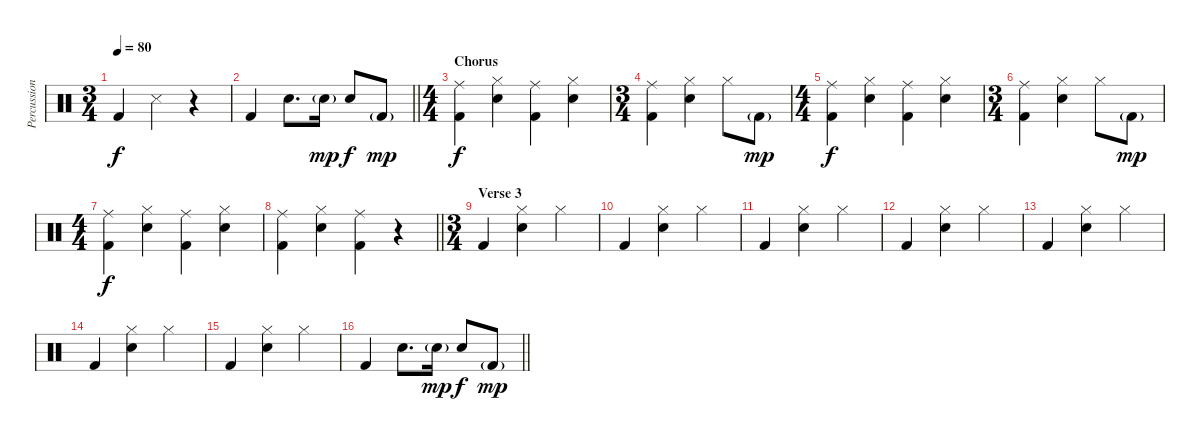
\track ("Percussion" "Percussion") {instrument percussion}
\staff {score}
\articulation defaults
\ts (3 4)
\tempo 80
\clef neutral
\ks c "Kick (hit) 2".4{dy f} "Snare (side stick) 3".4
r.4 |
\barLineRight lightlight "Kick (hit) 2".4 "Snare (hit) 2".8{d} "Snare (hit) 2"{g}.16{dy mp} "Snare (hit) 2".8{dy f} "Kick (hit) 2"{g}.8{dy mp}
|
\ts (4 4)
\section ("" "Chorus")
("Ride (middle)" "Kick (hit) 2").4{dy f} ("Snare (hit) 2" "Hi-Hat (closed)").4 ("Ride (middle)" "Kick (hit) 2").4 ("Snare (hit) 2" "Hi-Hat (closed)").4 |
\ts (3 4)
("Ride (middle)" "Kick (hit) 2").4 ("Snare (hit) 2" "Hi-Hat (closed)").4 "Hi-Hat (closed)".8 "Kick (hit) 2"{g}.8{dy mp} |
\ts (4 4)
("Ride (middle)" "Kick (hit) 2").4{dy f} ("Snare (hit) 2" "Hi-Hat (closed)").4 ("Ride (middle)" "Kick (hit) 2").4 ("Snare (hit) 2" "Hi-Hat (closed)").4 |
\ts (3 4)
("Ride (middle)" "Kick (hit) 2").4 ("Snare (hit) 2" "Hi-Hat (closed)").4 "Hi-Hat (closed)".8 "Kick (hit) 2"{g}.8{dy mp} |
\ts (4 4)
("Ride (middle)" "Kick (hit) 2").4{dy f} ("Snare (hit) 2" "Hi-Hat (closed)").4 ("Ride (middle)" "Kick (hit) 2").4 ("Snare (hit) 2" "Hi-Hat (closed)").4 |
\barLineRight lightlight
("Ride (middle)" "Kick (hit) 2").4 ("Snare (hit) 2" "Hi-Hat (closed)").4 ("Ride (middle)" "Kick (hit) 2").4 r.4 |
\ts (3 4)
\section ("" "Verse 3")
"Kick (hit) 2".4 ("Snare (hit) 2" "Hi-Hat (closed)").4 "Hi-Hat (closed)".4 |
"Kick (hit) 2".4 ("Snare (hit) 2" "Hi-Hat (closed)").4 "Hi-Hat (closed)".4 |
"Kick (hit) 2".4 ("Snare (hit) 2" "Hi-Hat (closed)").4 "Hi-Hat (closed)".4 |
"Kick (hit) 2".4 ("Snare (hit) 2" "Hi-Hat (closed)").4 "Hi-Hat (closed)".4 |
"Kick (hit) 2".4 ("Snare (hit) 2" "Hi-Hat (closed)").4 "Hi-Hat (closed)".4 |
"Kick (hit) 2".4 ("Snare (hit) 2" "Hi-Hat (closed)").4 "Hi-Hat (closed)".4 |
"Kick (hit) 2".4 ("Snare (hit) 2" "Hi-Hat (closed)").4 "Hi-Hat (closed)".4 |
\barLineRight lightlight "Kick (hit) 2".4 "Snare (hit) 2".8{d} "Snare (hit) 2"{g}.16{dy mp} "Snare (hit) 2".8{dy f} "Kick (hit) 2"{g}.8{dy mp}
